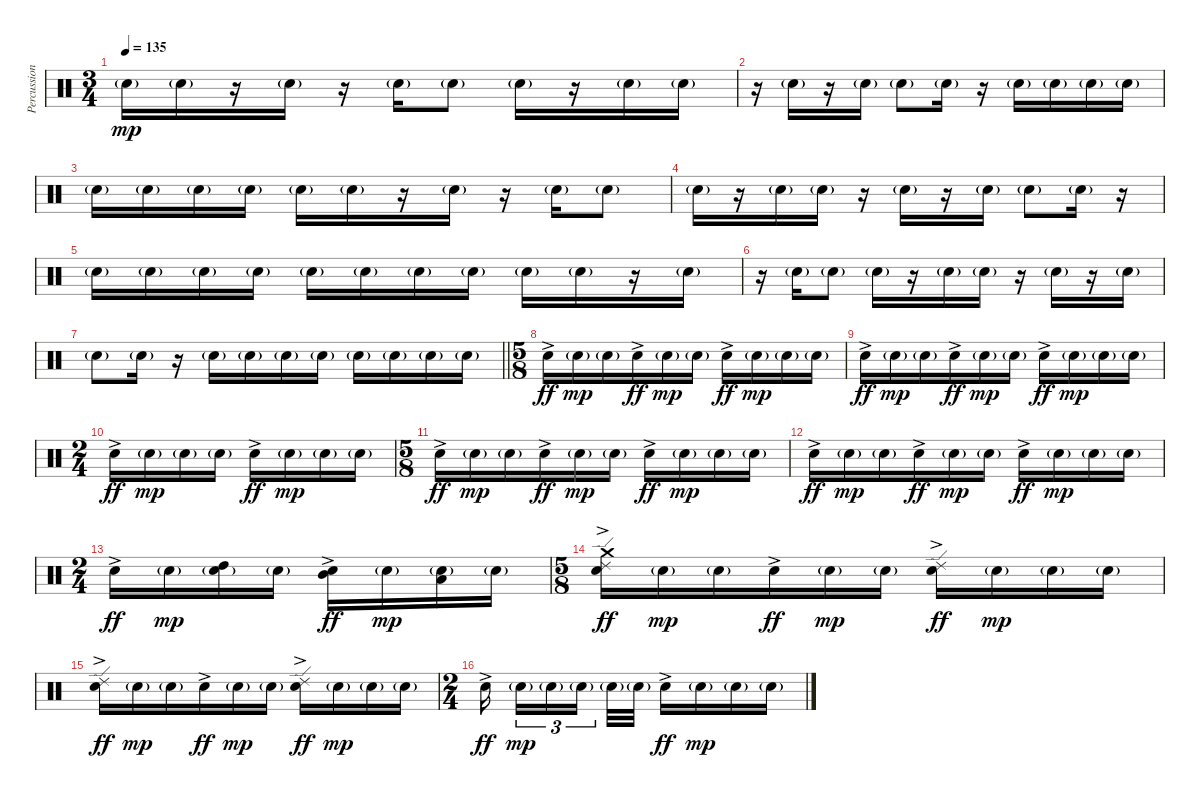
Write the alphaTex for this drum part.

\track ("Percussion" "Percussion") {instrument percussion}
\staff {score}
\articulation defaults
\ts (3 4)
\tempo 135
\clef neutral
\ks c "Snare (hit) 2"{g}.16{dy mp} "Snare (hit) 2"{g}.16{volume 12}
r.16 "Snare (hit) 2"{g}.16 r.16 "Snare (hit) 2"{g}.16 "Snare (hit) 2"{g}.8 "Snare (hit) 2"{g}.16 r.16 "Snare (hit) 2"{g}.16 "Snare (hit) 2"{g}.16 |
r.16 "Snare (hit) 2"{g}.16 r.16 "Snare (hit) 2"{g}.16 "Snare (hit) 2"{g}.8 "Snare (hit) 2"{g}.16 r.16 "Snare (hit) 2"{g}.16 "Snare (hit) 2"{g}.16 "Snare (hit) 2"{g}.16 "Snare (hit) 2"{g}.16 |
"Snare (hit) 2"{g}.16 "Snare (hit) 2"{g}.16 "Snare (hit) 2"{g}.16 "Snare (hit) 2"{g}.16 "Snare (hit) 2"{g}.16 "Snare (hit) 2"{g}.16 r.16 "Snare (hit) 2"{g}.16 r.16 "Snare (hit) 2"{g}.16 "Snare (hit) 2"{g}.8 |
"Snare (hit) 2"{g}.16 r.16 "Snare (hit) 2"{g}.16 "Snare (hit) 2"{g}.16 r.16 "Snare (hit) 2"{g}.16 r.16 "Snare (hit) 2"{g}.16 "Snare (hit) 2"{g}.8 "Snare (hit) 2"{g}.16 r.16 |
"Snare (hit) 2"{g}.16 "Snare (hit) 2"{g}.16 "Snare (hit) 2"{g}.16 "Snare (hit) 2"{g}.16 "Snare (hit) 2"{g}.16 "Snare (hit) 2"{g}.16 "Snare (hit) 2"{g}.16 "Snare (hit) 2"{g}.16 "Snare (hit) 2"{g}.16 "Snare (hit) 2"{g}.16 r.16 "Snare (hit) 2"{g}.16 |
r.16 "Snare (hit) 2"{g}.16 "Snare (hit) 2"{g}.8 "Snare (hit) 2"{g}.16 r.16 "Snare (hit) 2"{g}.16 "Snare (hit) 2"{g}.16 r.16 "Snare (hit) 2"{g}.16 r.16 "Snare (hit) 2"{g}.16 |
\barLineRight lightlight "Snare (hit) 2"{g}.8 "Snare (hit) 2"{g}.16
r.16 "Snare (hit) 2"{g}.16 "Snare (hit) 2"{g}.16 "Snare (hit) 2"{g}.16 "Snare (hit) 2"{g}.16 "Snare (hit) 2"{g}.16 "Snare (hit) 2"{g}.16 "Snare (hit) 2"{g}.16 "Snare (hit) 2"{g}.16 |
\ts (5 8)
\section ("" "")
"Snare (hit) 2"{ac}.16{dy ff volume 13} "Snare (hit) 2"{g}.16{dy mp} "Snare (hit) 2"{g}.16 "Snare (hit) 2"{ac}.16{dy ff} "Snare (hit) 2"{g}.16{dy mp} "Snare (hit) 2"{g}.16 "Snare (hit) 2"{ac}.16{dy ff} "Snare (hit) 2"{g}.16{dy mp} "Snare (hit) 2"{g}.16 "Snare (hit) 2"{g}.16 |
"Snare (hit) 2"{ac}.16{dy ff} "Snare (hit) 2"{g}.16{dy mp} "Snare (hit) 2"{g}.16 "Snare (hit) 2"{ac}.16{dy ff} "Snare (hit) 2"{g}.16{dy mp} "Snare (hit) 2"{g}.16 "Snare (hit) 2"{ac}.16{dy ff} "Snare (hit) 2"{g}.16{dy mp} "Snare (hit) 2"{g}.16 "Snare (hit) 2"{g}.16 |
\ts (2 4)
"Snare (hit) 2"{ac}.16{dy ff} "Snare (hit) 2"{g}.16{dy mp} "Snare (hit) 2"{g}.16 "Snare (hit) 2"{g}.16 "Snare (hit) 2"{ac}.16{dy ff} "Snare (hit) 2"{g}.16{dy mp} "Snare (hit) 2"{g}.16 "Snare (hit) 2"{g}.16 |
\ts (5 8)
"Snare (hit) 2"{ac}.16{dy ff} "Snare (hit) 2"{g}.16{dy mp} "Snare (hit) 2"{g}.16 "Snare (hit) 2"{ac}.16{dy ff} "Snare (hit) 2"{g}.16{dy mp} "Snare (hit) 2"{g}.16 "Snare (hit) 2"{ac}.16{dy ff} "Snare (hit) 2"{g}.16{dy mp} "Snare (hit) 2"{g}.16 "Snare (hit) 2"{g}.16 |
"Snare (hit) 2"{ac}.16{dy ff} "Snare (hit) 2"{g}.16{dy mp} "Snare (hit) 2"{g}.16 "Snare (hit) 2"{ac}.16{dy ff} "Snare (hit) 2"{g}.16{dy mp} "Snare (hit) 2"{g}.16 "Snare (hit) 2"{ac}.16{dy ff} "Snare (hit) 2"{g}.16{dy mp} "Snare (hit) 2"{g}.16 "Snare (hit) 2"{g}.16 |
\ts (2 4)
"Snare (hit) 2"{ac}.16{dy ff} "Snare (hit) 2"{g}.16{dy mp} ("High Tom (hit)" "Snare (hit) 2"{g}).16 "Snare (hit) 2"{g}.16 ("Mid Tom (hit)" "Snare (hit) 2"{ac}).16{dy ff} "Snare (hit) 2"{g}.16{dy mp} ("Low Tom (hit)" "Snare (hit) 2"{g}).16 "Snare (hit) 2"{g}.16 |
\ts (5 8)
("Ride (edge) 2" "Crash medium (hit)" "Snare (hit) 2"{ac}).16{dy ff} "Snare (hit) 2"{g}.16{dy mp} "Snare (hit) 2"{g}.16 "Snare (hit) 2"{ac}.16{dy ff} "Snare (hit) 2"{g}.16{dy mp} "Snare (hit) 2"{g}.16 ("Ride (edge) 2" "Snare (hit) 2"{ac}).16{dy ff} "Snare (hit) 2"{g}.16{dy mp} "Snare (hit) 2"{g}.16 "Snare (hit) 2"{g}.16 |
("Ride (edge) 2" "Snare (hit) 2"{ac}).16{dy ff} "Snare (hit) 2"{g}.16{dy mp} "Snare (hit) 2"{g}.16 "Snare (hit) 2"{ac}.16{dy ff} "Snare (hit) 2"{g}.16{dy mp} "Snare (hit) 2"{g}.16 ("Ride (edge) 2" "Snare (hit) 2"{ac}).16{dy ff} "Snare (hit) 2"{g}.16{dy mp} "Snare (hit) 2"{g}.16 "Snare (hit) 2"{g}.16 |
\ts (2 4)
"Snare (hit) 2"{ac}.16{dy ff beam splitsecondary} "Snare (hit) 2"{g}.16{tu (3 2) dy mp} "Snare (hit) 2"{g}.16{tu (3 2)} "Snare (hit) 2"{g}.16{tu (3 2) beam splitsecondary} "Snare (hit) 2"{g}.32 "Snare (hit) 2"{g}.32 "Snare (hit) 2"{ac}.16{dy ff} "Snare (hit) 2"{g}.16{dy mp} "Snare (hit) 2"{g}.16 "Snare (hit) 2"{g}.16
